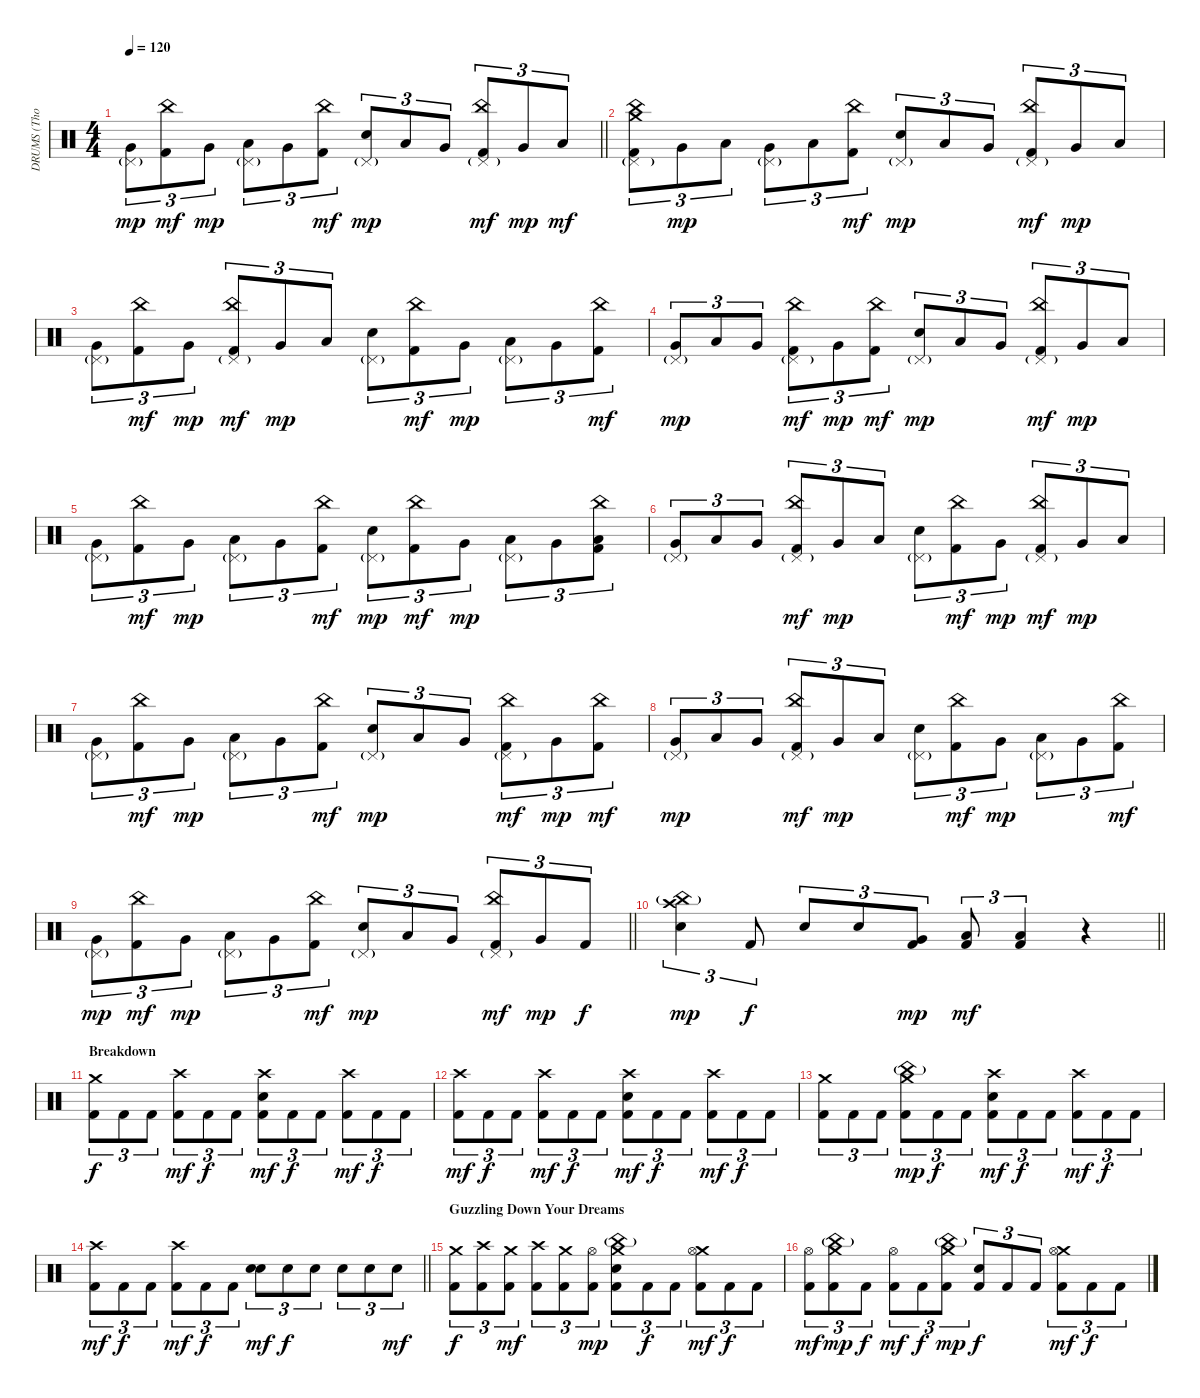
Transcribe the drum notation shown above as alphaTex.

\track ("DRUMS (Thomas Haake)" "DRUMS (Tho") {instrument percussion}
\staff {score}
\articulation defaults
\ts (4 4)
\tempo 120
\clef neutral
\barLineRight lightlight
\ks c
("Pedal Hi-Hat (hit)"{g} "Very Low Tom (hit)").8{tu (3 2) dy mp} ("China (hit)" "Kick (hit) 2").8{tu (3 2) dy mf} "Very Low Tom (hit)".8{tu (3 2) dy mp} ("Pedal Hi-Hat (hit)"{g} "Low Floor Tom (hit)").8{tu (3 2)} "Very Low Tom (hit)".8{tu (3 2)} ("China (hit)" "Kick (hit) 2").8{tu (3 2) dy mf} ("Pedal Hi-Hat (hit)"{g} "Electric Snare (hit)").8{tu (3 2) dy mp} "Low Floor Tom (hit)".8{tu (3 2)} "Very Low Tom (hit)".8{tu (3 2)} ("Pedal Hi-Hat (hit)"{g} "China (hit)" "Kick (hit) 2").8{tu (3 2) dy mf} "Very Low Tom (hit)".8{tu (3 2) dy mp} "Low Floor Tom (hit)".8{tu (3 2) dy mf} |
("Pedal Hi-Hat (hit)"{g} "Crash medium (hit)" "China (hit)" "Kick (hit) 2").8{tu (3 2)} "Very Low Tom (hit)".8{tu (3 2) dy mp} "Low Floor Tom (hit)".8{tu (3 2)} ("Pedal Hi-Hat (hit)"{g} "Very Low Tom (hit)").8{tu (3 2)} "Low Floor Tom (hit)".8{tu (3 2)} ("China (hit)" "Kick (hit) 2").8{tu (3 2) dy mf} ("Pedal Hi-Hat (hit)"{g} "Electric Snare (hit)").8{tu (3 2) dy mp} "Low Floor Tom (hit)".8{tu (3 2)} "Very Low Tom (hit)".8{tu (3 2)} ("Pedal Hi-Hat (hit)"{g} "China (hit)" "Kick (hit) 2").8{tu (3 2) dy mf} "Very Low Tom (hit)".8{tu (3 2) dy mp} "Low Floor Tom (hit)".8{tu (3 2)} |
("Pedal Hi-Hat (hit)"{g} "Very Low Tom (hit)").8{tu (3 2)} ("China (hit)" "Kick (hit) 2").8{tu (3 2) dy mf} "Very Low Tom (hit)".8{tu (3 2) dy mp} ("Pedal Hi-Hat (hit)"{g} "China (hit)" "Kick (hit) 2").8{tu (3 2) dy mf} "Very Low Tom (hit)".8{tu (3 2) dy mp} "Low Floor Tom (hit)".8{tu (3 2)} ("Pedal Hi-Hat (hit)"{g} "Electric Snare (hit)").8{tu (3 2)} ("China (hit)" "Kick (hit) 2").8{tu (3 2) dy mf} "Very Low Tom (hit)".8{tu (3 2) dy mp} ("Pedal Hi-Hat (hit)"{g} "Low Floor Tom (hit)").8{tu (3 2)} "Very Low Tom (hit)".8{tu (3 2)} ("China (hit)" "Kick (hit) 2").8{tu (3 2) dy mf} |
("Pedal Hi-Hat (hit)"{g} "Very Low Tom (hit)").8{tu (3 2) dy mp} "Low Floor Tom (hit)".8{tu (3 2)} "Very Low Tom (hit)".8{tu (3 2)} ("Pedal Hi-Hat (hit)"{g} "China (hit)" "Kick (hit) 2").8{tu (3 2) dy mf} "Very Low Tom (hit)".8{tu (3 2) dy mp} ("China (hit)" "Kick (hit) 2").8{tu (3 2) dy mf} ("Pedal Hi-Hat (hit)"{g} "Electric Snare (hit)").8{tu (3 2) dy mp} "Low Floor Tom (hit)".8{tu (3 2)} "Very Low Tom (hit)".8{tu (3 2)} ("Pedal Hi-Hat (hit)"{g} "China (hit)" "Kick (hit) 2").8{tu (3 2) dy mf} "Very Low Tom (hit)".8{tu (3 2) dy mp} "Low Floor Tom (hit)".8{tu (3 2)} |
("Pedal Hi-Hat (hit)"{g} "Very Low Tom (hit)").8{tu (3 2)} ("China (hit)" "Kick (hit) 2").8{tu (3 2) dy mf} "Very Low Tom (hit)".8{tu (3 2) dy mp} ("Pedal Hi-Hat (hit)"{g} "Low Floor Tom (hit)").8{tu (3 2)} "Very Low Tom (hit)".8{tu (3 2)} ("China (hit)" "Kick (hit) 2").8{tu (3 2) dy mf} ("Pedal Hi-Hat (hit)"{g} "Electric Snare (hit)").8{tu (3 2) dy mp} ("China (hit)" "Kick (hit) 2").8{tu (3 2) dy mf} "Very Low Tom (hit)".8{tu (3 2) dy mp} ("Pedal Hi-Hat (hit)"{g} "Low Floor Tom (hit)").8{tu (3 2)} "Very Low Tom (hit)".8{tu (3 2)} ("China (hit)" "Low Floor Tom (hit)" "Kick (hit) 2").8{tu (3 2)} |
("Pedal Hi-Hat (hit)"{g} "Very Low Tom (hit)").8{tu (3 2)} "Low Floor Tom (hit)".8{tu (3 2)} "Very Low Tom (hit)".8{tu (3 2)} ("Pedal Hi-Hat (hit)"{g} "China (hit)" "Kick (hit) 2").8{tu (3 2) dy mf} "Very Low Tom (hit)".8{tu (3 2) dy mp} "Low Floor Tom (hit)".8{tu (3 2)} ("Pedal Hi-Hat (hit)"{g} "Electric Snare (hit)").8{tu (3 2)} ("China (hit)" "Kick (hit) 2").8{tu (3 2) dy mf} "Very Low Tom (hit)".8{tu (3 2) dy mp} ("Pedal Hi-Hat (hit)"{g} "China (hit)" "Kick (hit) 2").8{tu (3 2) dy mf} "Very Low Tom (hit)".8{tu (3 2) dy mp} "Low Floor Tom (hit)".8{tu (3 2)} |
("Pedal Hi-Hat (hit)"{g} "Very Low Tom (hit)").8{tu (3 2)} ("China (hit)" "Kick (hit) 2").8{tu (3 2) dy mf} "Very Low Tom (hit)".8{tu (3 2) dy mp} ("Pedal Hi-Hat (hit)"{g} "Low Floor Tom (hit)").8{tu (3 2)} "Very Low Tom (hit)".8{tu (3 2)} ("China (hit)" "Kick (hit) 2").8{tu (3 2) dy mf} ("Pedal Hi-Hat (hit)"{g} "Electric Snare (hit)").8{tu (3 2) dy mp} "Low Floor Tom (hit)".8{tu (3 2)} "Very Low Tom (hit)".8{tu (3 2)} ("Pedal Hi-Hat (hit)"{g} "China (hit)" "Kick (hit) 2").8{tu (3 2) dy mf} "Very Low Tom (hit)".8{tu (3 2) dy mp} ("China (hit)" "Kick (hit) 2").8{tu (3 2) dy mf} |
("Pedal Hi-Hat (hit)"{g} "Very Low Tom (hit)").8{tu (3 2) dy mp} "Low Floor Tom (hit)".8{tu (3 2)} "Very Low Tom (hit)".8{tu (3 2)} ("Pedal Hi-Hat (hit)"{g} "China (hit)" "Kick (hit) 2").8{tu (3 2) dy mf} "Very Low Tom (hit)".8{tu (3 2) dy mp} "Low Floor Tom (hit)".8{tu (3 2)} ("Pedal Hi-Hat (hit)"{g} "Electric Snare (hit)").8{tu (3 2)} ("China (hit)" "Kick (hit) 2").8{tu (3 2) dy mf} "Very Low Tom (hit)".8{tu (3 2) dy mp} ("Pedal Hi-Hat (hit)"{g} "Low Floor Tom (hit)").8{tu (3 2)} "Very Low Tom (hit)".8{tu (3 2)} ("China (hit)" "Kick (hit) 2").8{tu (3 2) dy mf} |
\barLineRight lightlight
("Pedal Hi-Hat (hit)"{g} "Very Low Tom (hit)").8{tu (3 2) dy mp} ("China (hit)" "Kick (hit) 2").8{tu (3 2) dy mf} "Very Low Tom (hit)".8{tu (3 2) dy mp} ("Pedal Hi-Hat (hit)"{g} "Low Floor Tom (hit)").8{tu (3 2)} "Very Low Tom (hit)".8{tu (3 2)} ("China (hit)" "Kick (hit) 2").8{tu (3 2) dy mf} ("Pedal Hi-Hat (hit)"{g} "Electric Snare (hit)").8{tu (3 2) dy mp} "Low Floor Tom (hit)".8{tu (3 2)} "Very Low Tom (hit)".8{tu (3 2)} ("Pedal Hi-Hat (hit)"{g} "China (hit)" "Kick (hit) 2").8{tu (3 2) dy mf} "Very Low Tom (hit)".8{tu (3 2) dy mp} "Kick (hit) 2".8{tu (3 2) dy f} |
\barLineRight lightlight
("Crash high (hit)" "China (hit)"{g} "Electric Snare (hit)").4{tu (3 2) dy mp} "Kick (hit) 2".8{tu (3 2) dy f} "Electric Snare (hit)".8{tu (3 2)} "Electric Snare (hit)".8{tu (3 2)} ("Very Low Tom (hit)" "Kick (hit) 2").8{tu (3 2) dy mp} ("Low Floor Tom (hit)" "Kick (hit) 2").8{tu (3 2) dy mf} ("Low Floor Tom (hit)" "Kick (hit) 2").4{tu (3 2)} r.4 |
\section ("" "Breakdown")
("Crash medium (hit)" "Kick (hit) 2").8{tu (3 2) dy f} "Kick (hit) 2".8{tu (3 2)} "Kick (hit) 2".8{tu (3 2)} ("Crash high (hit)" "Kick (hit) 2").8{tu (3 2) dy mf} "Kick (hit) 2".8{tu (3 2) dy f} "Kick (hit) 2".8{tu (3 2)} ("Crash high (hit)" "Electric Snare (hit)" "Kick (hit) 2").8{tu (3 2) dy mf} "Kick (hit) 2".8{tu (3 2) dy f} "Kick (hit) 2".8{tu (3 2)} ("Crash high (hit)" "Kick (hit) 2").8{tu (3 2) dy mf} "Kick (hit) 2".8{tu (3 2) dy f} "Kick (hit) 2".8{tu (3 2)} |
("Crash high (hit)" "Kick (hit) 2").8{tu (3 2) dy mf} "Kick (hit) 2".8{tu (3 2) dy f} "Kick (hit) 2".8{tu (3 2)} ("Crash high (hit)" "Kick (hit) 2").8{tu (3 2) dy mf} "Kick (hit) 2".8{tu (3 2) dy f} "Kick (hit) 2".8{tu (3 2)} ("Crash high (hit)" "Electric Snare (hit)" "Kick (hit) 2").8{tu (3 2) dy mf} "Kick (hit) 2".8{tu (3 2) dy f} "Kick (hit) 2".8{tu (3 2)} ("Crash high (hit)" "Kick (hit) 2").8{tu (3 2) dy mf} "Kick (hit) 2".8{tu (3 2) dy f} "Kick (hit) 2".8{tu (3 2)} |
("Crash medium (hit)" "Kick (hit) 2").8{tu (3 2)} "Kick (hit) 2".8{tu (3 2)} "Kick (hit) 2".8{tu (3 2)} ("Crash medium (hit)" "China (hit)"{g} "Kick (hit) 2").8{tu (3 2) dy mp} "Kick (hit) 2".8{tu (3 2) dy f} "Kick (hit) 2".8{tu (3 2)} ("Crash high (hit)" "Electric Snare (hit)" "Kick (hit) 2").8{tu (3 2) dy mf} "Kick (hit) 2".8{tu (3 2) dy f} "Kick (hit) 2".8{tu (3 2)} ("Crash high (hit)" "Kick (hit) 2").8{tu (3 2) dy mf} "Kick (hit) 2".8{tu (3 2) dy f} "Kick (hit) 2".8{tu (3 2)} |
\barLineRight lightlight
("Crash high (hit)" "Kick (hit) 2").8{tu (3 2) dy mf} "Kick (hit) 2".8{tu (3 2) dy f} "Kick (hit) 2".8{tu (3 2)} ("Crash high (hit)" "Kick (hit) 2").8{tu (3 2) dy mf} "Kick (hit) 2".8{tu (3 2) dy f} "Kick (hit) 2".8{tu (3 2)} ("Electric Snare (hit)" "Electric Snare (hit)").8{tu (3 2) bd 120 dy mf} "Electric Snare (hit)".8{tu (3 2) dy f} "Electric Snare (hit)".8{tu (3 2)} "Electric Snare (hit)".8{tu (3 2)} "Electric Snare (hit)".8{tu (3 2)} "Electric Snare (hit)".8{tu (3 2) dy mf} |
\section ("" "Guzzling Down Your Dreams")
("Crash medium (hit)" "Kick (hit) 2").8{tu (3 2) dy f} ("Crash high (hit)" "Kick (hit) 2").8{tu (3 2)} ("Crash medium (hit)" "Kick (hit) 2").8{tu (3 2) dy mf} ("Crash high (hit)" "Kick (hit) 2").8{tu (3 2)} ("Crash medium (hit)" "Kick (hit) 2").8{tu (3 2)} ("Hi-Hat (open)" "Kick (hit) 2").8{tu (3 2) dy mp} ("Crash medium (hit)" "China (hit)"{g} "Electric Snare (hit)" "Kick (hit) 2").8{tu (3 2)} "Kick (hit) 2".8{tu (3 2) dy f} "Kick (hit) 2".8{tu (3 2)} ("Crash medium (hit)" "Hi-Hat (open)" "Kick (hit) 2").8{tu (3 2) dy mf} "Kick (hit) 2".8{tu (3 2) dy f} "Kick (hit) 2".8{tu (3 2)} |
("Hi-Hat (open)" "Kick (hit) 2").8{tu (3 2) dy mf} ("Crash medium (hit)" "China (hit)"{g} "Kick (hit) 2").8{tu (3 2) dy mp} "Kick (hit) 2".8{tu (3 2) dy f} ("Hi-Hat (open)" "Kick (hit) 2").8{tu (3 2) dy mf} "Kick (hit) 2".8{tu (3 2) dy f} ("Crash medium (hit)" "China (hit)"{g} "Kick (hit) 2").8{tu (3 2) dy mp} ("Electric Snare (hit)" "Kick (hit) 2").8{tu (3 2) dy f} "Kick (hit) 2".8{tu (3 2)} "Kick (hit) 2".8{tu (3 2)} ("Crash medium (hit)" "Hi-Hat (open)" "Kick (hit) 2").8{tu (3 2) dy mf} "Kick (hit) 2".8{tu (3 2) dy f} "Kick (hit) 2".8{tu (3 2)}
